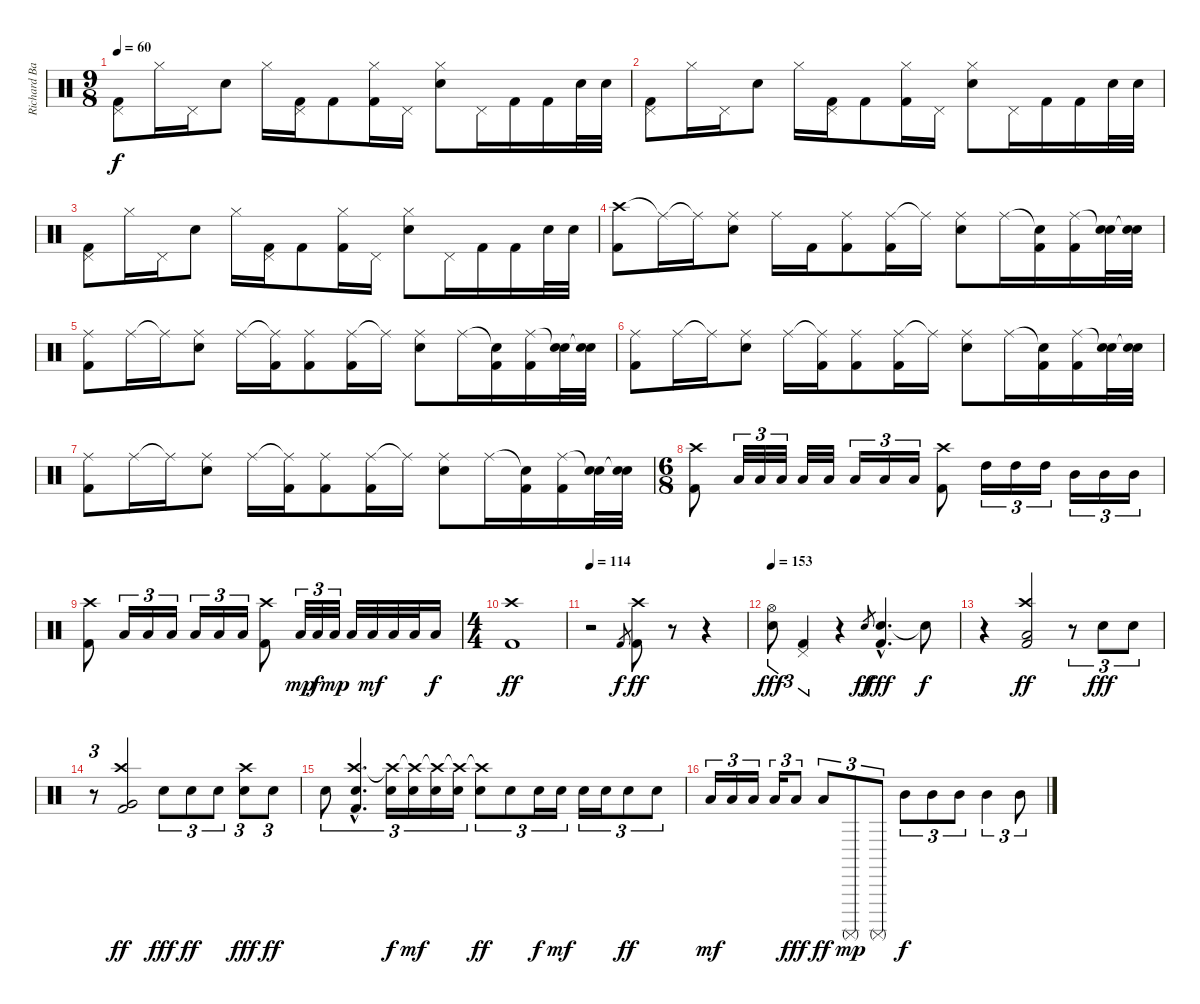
\track ("Richard Bailey" "Richard Ba") {instrument percussion}
\staff {score}
\articulation defaults
\ts (9 8)
\tempo 60
\clef neutral
\ks c
("Pedal Hi-Hat (hit)" "Kick (hit) 2").8{dy f} "Hi-Hat (closed)".16 "Pedal Hi-Hat (hit)".16 "Snare (hit) 2".8 "Hi-Hat (closed)".16 ("Pedal Hi-Hat (hit)" "Kick (hit) 2").16 "Kick (hit) 2".8 ("Hi-Hat (closed)" "Kick (hit) 2").16 "Pedal Hi-Hat (hit)".16 ("Hi-Hat (closed)" "Snare (hit) 2").8 "Pedal Hi-Hat (hit)".16 "Kick (hit) 2".16 "Kick (hit) 2".16 "Snare (hit) 2".32 "Snare (hit) 2".32 |
("Pedal Hi-Hat (hit)" "Kick (hit) 2").8 "Hi-Hat (closed)".16 "Pedal Hi-Hat (hit)".16 "Snare (hit) 2".8 "Hi-Hat (closed)".16 ("Pedal Hi-Hat (hit)" "Kick (hit) 2").16 "Kick (hit) 2".8 ("Hi-Hat (closed)" "Kick (hit) 2").16 "Pedal Hi-Hat (hit)".16 ("Hi-Hat (closed)" "Snare (hit) 2").8 "Pedal Hi-Hat (hit)".16 "Kick (hit) 2".16 "Kick (hit) 2".16 "Snare (hit) 2".32 "Snare (hit) 2".32 |
("Pedal Hi-Hat (hit)" "Kick (hit) 2").8 "Hi-Hat (closed)".16 "Pedal Hi-Hat (hit)".16 "Snare (hit) 2".8 "Hi-Hat (closed)".16 ("Pedal Hi-Hat (hit)" "Kick (hit) 2").16 "Kick (hit) 2".8 ("Hi-Hat (closed)" "Kick (hit) 2").16 "Pedal Hi-Hat (hit)".16 ("Hi-Hat (closed)" "Snare (hit) 2").8 "Pedal Hi-Hat (hit)".16 "Kick (hit) 2".16 "Kick (hit) 2".16 "Snare (hit) 2".32 "Snare (hit) 2".32 |
("Crash high (hit)" "Kick (hit) 2").8 "Ride (middle)"{t}.16 "Ride (middle)"{t}.16 ("Ride (middle)" "Snare (hit) 2").8 "Ride (middle)".16 "Kick (hit) 2".16 ("Ride (middle)" "Kick (hit) 2").8 ("Ride (middle)" "Kick (hit) 2").16 "Ride (middle)"{t}.16 ("Ride (middle)" "Snare (hit) 2").8 "Ride (middle)".16 ("Snare (hit)"{t} "Kick (hit) 2").16 ("Ride (middle)" "Kick (hit) 2").16 ("Snare (hit)"{t} "Snare (hit) 2").32 ("Snare (hit)"{t} "Snare (hit) 2").32 |
("Ride (middle)" "Kick (hit) 2").8 "Ride (middle)".16 "Ride (middle)"{t}.16 ("Ride (middle)" "Snare (hit) 2").8 "Ride (middle)".16 ("Ride (middle)"{t} "Kick (hit) 2").16 ("Ride (middle)" "Kick (hit) 2").8 ("Ride (middle)" "Kick (hit) 2").16 "Ride (middle)"{t}.16 ("Ride (middle)" "Snare (hit) 2").8 "Ride (middle)".16 ("Snare (hit)"{t} "Kick (hit) 2").16 ("Ride (middle)" "Kick (hit) 2").16 ("Snare (hit)"{t} "Snare (hit) 2").32 ("Snare (hit)"{t} "Snare (hit) 2").32 |
("Ride (middle)" "Kick (hit) 2").8 "Ride (middle)".16 "Ride (middle)"{t}.16 ("Ride (middle)" "Snare (hit) 2").8 "Ride (middle)".16 ("Ride (middle)"{t} "Kick (hit) 2").16 ("Ride (middle)" "Kick (hit) 2").8 ("Ride (middle)" "Kick (hit) 2").16 "Ride (middle)"{t}.16 ("Ride (middle)" "Snare (hit) 2").8 "Ride (middle)".16 ("Snare (hit)"{t} "Kick (hit) 2").16 ("Ride (middle)" "Kick (hit) 2").16 ("Snare (hit)"{t} "Snare (hit) 2").32 ("Snare (hit)"{t} "Snare (hit) 2").32 |
("Ride (middle)" "Kick (hit) 2").8 "Ride (middle)".16 "Ride (middle)"{t}.16 ("Ride (middle)" "Snare (hit) 2").8 "Ride (middle)".16 ("Ride (middle)"{t} "Kick (hit) 2").16 ("Ride (middle)" "Kick (hit) 2").8 ("Ride (middle)" "Kick (hit) 2").16 "Ride (middle)"{t}.16 ("Ride (middle)" "Snare (hit) 2").8 "Ride (middle)".16 ("Snare (hit)"{t} "Kick (hit) 2").16 ("Ride (middle)" "Kick (hit) 2").16 ("Snare (hit)"{t} "Snare (hit) 2").32 ("Snare (hit)"{t} "Snare (hit) 2").32 |
\ts (6 8)
("Crash high (hit)" "Kick (hit) 2").8 "Low Tom (hit)".32{tu (3 2)} "Low Tom (hit)".32{tu (3 2)} "Low Tom (hit)".32{tu (3 2)} "Low Tom (hit)".32 "Low Tom (hit)".32 "Low Tom (hit)".16{tu (3 2)} "Low Tom (hit)".16{tu (3 2)} "Low Tom (hit)".16{tu (3 2)} ("Crash high (hit)" "Kick (hit) 2").8 "High Tom (hit)".16{tu (3 2)} "High Tom (hit)".16{tu (3 2)} "High Tom (hit)".16{tu (3 2)} "Mid Tom (hit)".16{tu (3 2)} "Mid Tom (hit)".16{tu (3 2)} "Mid Tom (hit)".16{tu (3 2)} |
("Crash high (hit)" "Kick (hit) 2").8 "Low Tom (hit)".16{tu (3 2)} "Low Tom (hit)".16{tu (3 2)} "Low Tom (hit)".16{tu (3 2)} "Low Tom (hit)".16{tu (3 2)} "Low Tom (hit)".16{tu (3 2)} "Low Tom (hit)".16{tu (3 2)} ("Crash high (hit)" "Kick (hit) 2").8 "Low Tom (hit)".32{tu (3 2) dy mp} "Low Tom (hit)".32{tu (3 2) dy f} "Low Tom (hit)".32{tu (3 2) dy mp} "Low Tom (hit)".32 "Low Tom (hit)".32{dy mf} "Low Tom (hit)".32 "Low Tom (hit)".32 "Low Tom (hit)".16{dy f} |
\ts (4 4)
("Crash high (hit)" "Kick (hit) 2").1{dy ff} |
\tempo 114
r.2 "Kick (hit) 2".8{gr dy f} ("Crash high (hit)" "Kick (hit) 2").8{dy ff} r.8 r.4 |
\tempo 153
("Hi-Hat (open)" "Electric Snare (hit)").8{tu (3 2) dy fff} ("Pedal Hi-Hat (hit)" "Kick (hit) 2").4{tu (3 2)} r.4 "Electric Snare (hit)".8{gr dy ff} ("Electric Snare (hit)"{hac} "Kick (hit) 2"{hac}).4{d dy fff} "Snare (hit)"{t}.8{dy f} |
r.4 ("Crash high (hit)" "Low Tom (hit)" "Kick (hit) 2").2{dy ff} r.8{tu (3 2)} "Electric Snare (hit)".8{tu (3 2) dy fff} "Electric Snare (hit)".8{tu (3 2)} |
r.8{tu (3 2)} ("Crash high (hit)" "Very Low Tom (hit)" "Kick (hit) 2").2{dy ff} "Electric Snare (hit)".8{tu (3 2) dy fff} "Electric Snare (hit)".8{tu (3 2) dy ff} "Electric Snare (hit)".8{tu (3 2)} ("Crash high (hit)" "Electric Snare (hit)").8{tu (3 2) dy fff} "Electric Snare (hit)".8{tu (3 2) dy ff} |
"Electric Snare (hit)".8{tu (3 2)} ("Crash high (hit)"{hac} "Electric Snare (hit)"{hac} "Kick (hit) 2"{hac}).4{d tu (3 2)} ("Crash high (hit)"{t} "Electric Snare (hit)").16{tu (3 2) dy f} ("Crash high (hit)"{t} "Electric Snare (hit)").16{tu (3 2) dy mf} ("Crash high (hit)"{t} "Electric Snare (hit)").16{tu (3 2)} ("Crash high (hit)"{t} "Electric Snare (hit)").16{tu (3 2)} ("Crash high (hit)"{t} "Electric Snare (hit)").8{tu (3 2) dy ff} "Electric Snare (hit)".8{tu (3 2)} "Electric Snare (hit)".16{tu (3 2) dy f} "Electric Snare (hit)".16{tu (3 2) dy mf} "Electric Snare (hit)".16{tu (3 2)} "Electric Snare (hit)".16{tu (3 2)} "Electric Snare (hit)".8{tu (3 2) dy ff} "Electric Snare (hit)".8{tu (3 2)} |
"Low Floor Tom (hit)".16{tu (3 2) dy mf} "Low Floor Tom (hit)".16{tu (3 2)} "Low Floor Tom (hit)".16{tu (3 2)} "Low Floor Tom (hit)".16{tu (3 2)} "Low Floor Tom (hit)".8{tu (3 2) dy fff} "Low Floor Tom (hit)".8{tu (3 2) dy ff} "Surdo (mute)".8{tu (3 2) dy mp} "Surdo (mute)".8{tu (3 2)} "Mid Tom (hit)".8{tu (3 2) dy f} "Mid Tom (hit)".8{tu (3 2)} "Mid Tom (hit)".8{tu (3 2)} "Mid Tom (hit)".4{tu (3 2)} "Mid Tom (hit)".8{tu (3 2)}
